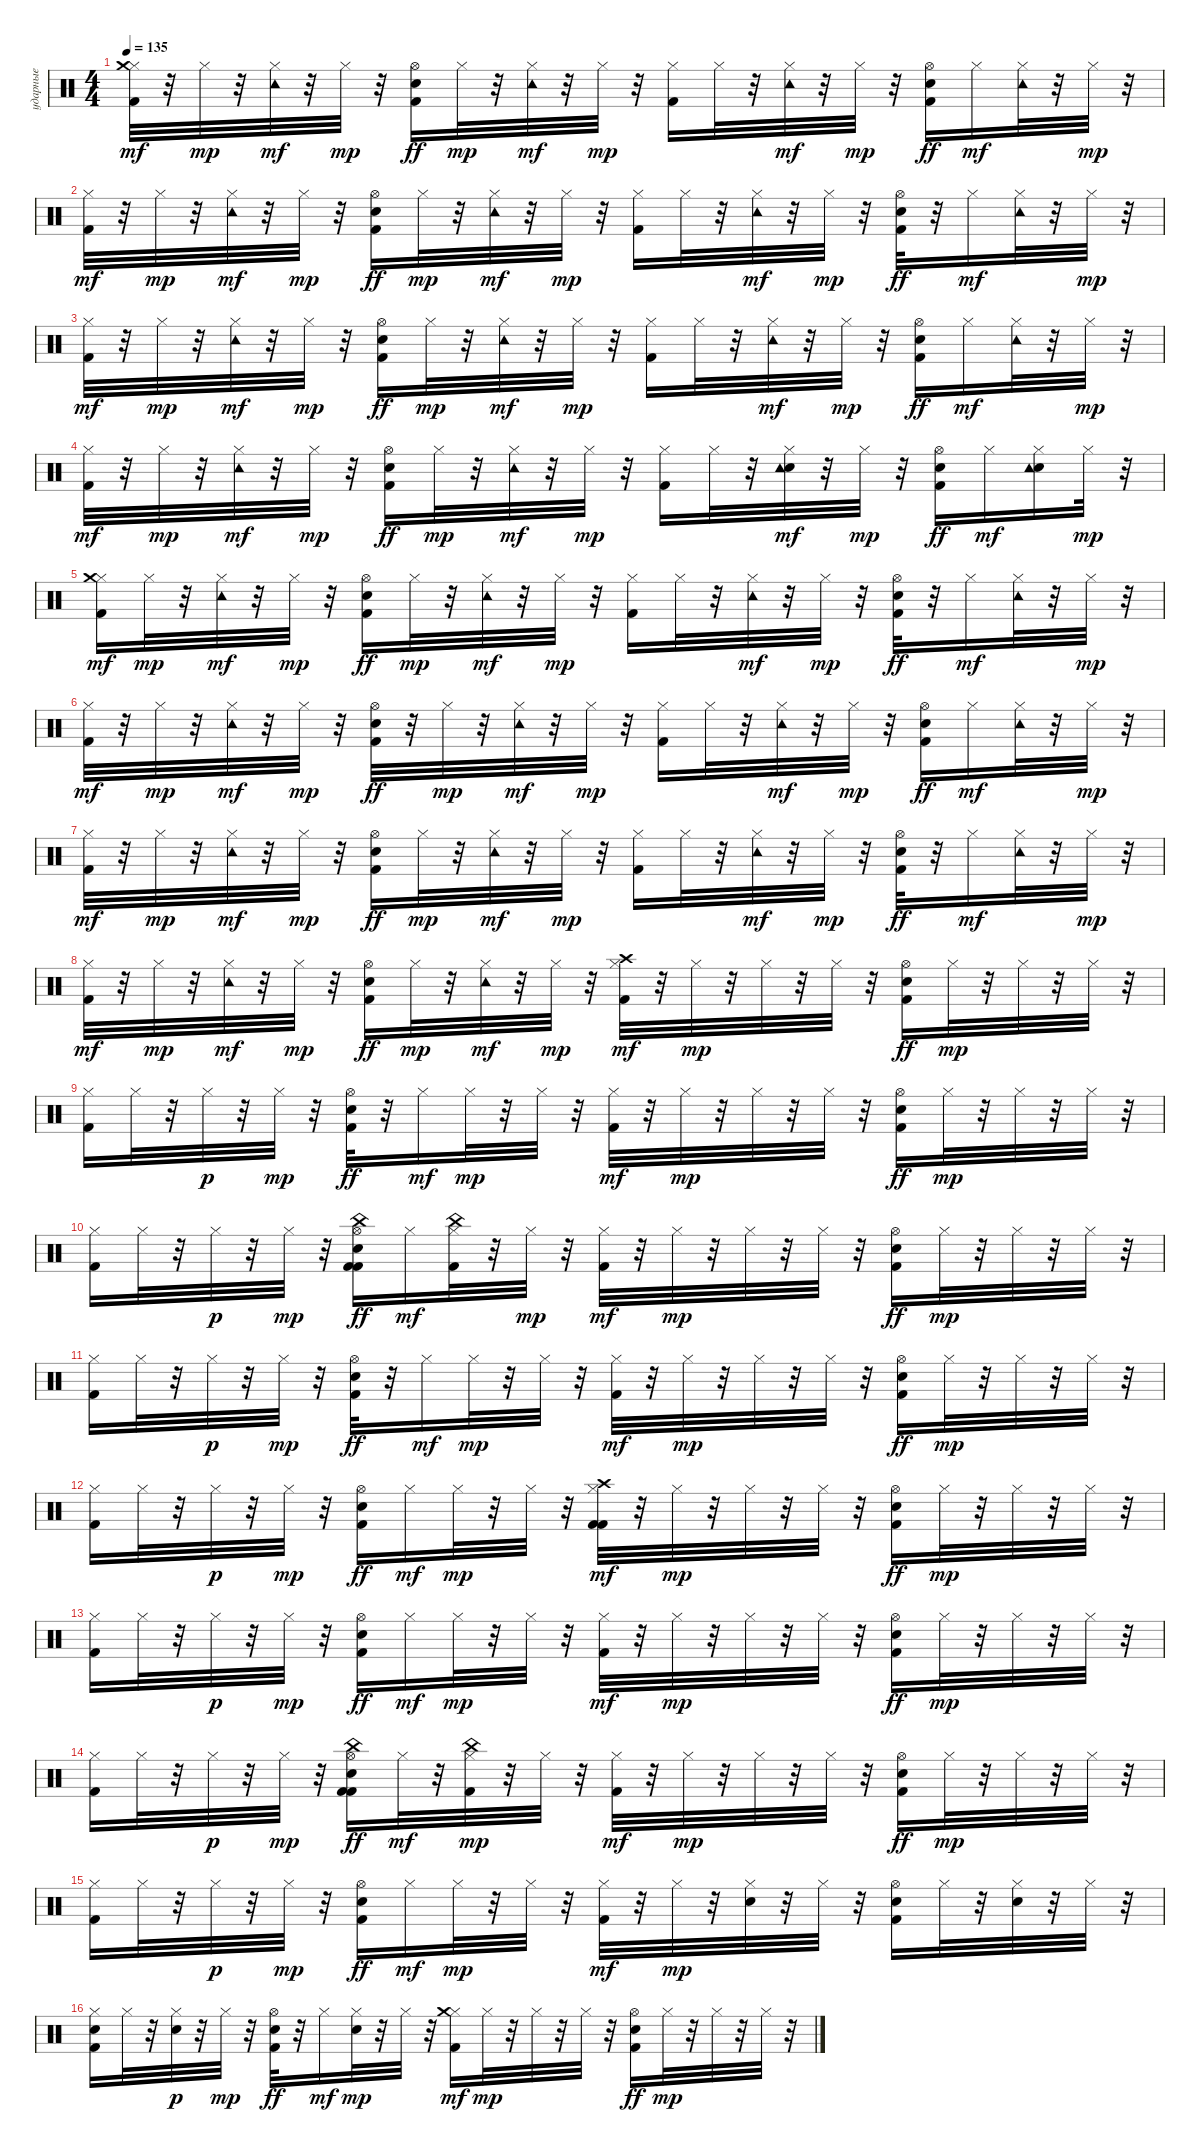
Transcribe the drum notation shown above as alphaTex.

\track ("ударные" "ударные") {instrument percussion}
\staff {score}
\articulation defaults
\ts (4 4)
\tempo 135
\clef neutral
\ks c
("Kick (hit) 2" "Hi-Hat (closed)" "Crash medium (hit)").32{dy mf} r.32 "Hi-Hat (closed)".32{dy mp} r.32 ("Hi-Hat (closed)" "Tambourine (hit)").32{dy mf} r.32 "Hi-Hat (closed)".32{dy mp} r.32 ("Kick (hit) 2" "Snare (hit) 2" "Hi-Hat (open)").16{dy ff} "Hi-Hat (closed)".32{dy mp} r.32 ("Hi-Hat (closed)" "Tambourine (hit)").32{dy mf} r.32 "Hi-Hat (closed)".32{dy mp} r.32 ("Kick (hit) 2" "Hi-Hat (closed)").16 "Hi-Hat (closed)".32 r.32 ("Hi-Hat (closed)" "Tambourine (hit)").32{dy mf} r.32 "Hi-Hat (closed)".32{dy mp} r.32 ("Kick (hit) 2" "Snare (hit) 2" "Hi-Hat (open)").16{dy ff} "Hi-Hat (closed)".16{dy mf} ("Hi-Hat (closed)" "Tambourine (hit)").32 r.32 "Hi-Hat (closed)".32{dy mp} r.32 |
("Kick (hit) 2" "Hi-Hat (closed)").32{dy mf} r.32 "Hi-Hat (closed)".32{dy mp} r.32 ("Hi-Hat (closed)" "Tambourine (hit)").32{dy mf} r.32 "Hi-Hat (closed)".32{dy mp} r.32 ("Kick (hit) 2" "Hi-Hat (open)" "Snare (hit) 2").16{dy ff} "Hi-Hat (closed)".32{dy mp} r.32 ("Hi-Hat (closed)" "Tambourine (hit)").32{dy mf} r.32 "Hi-Hat (closed)".32{dy mp} r.32 ("Kick (hit) 2" "Hi-Hat (closed)").16 "Hi-Hat (closed)".32 r.32 ("Hi-Hat (closed)" "Tambourine (hit)").32{dy mf} r.32 "Hi-Hat (closed)".32{dy mp} r.32 ("Kick (hit) 2" "Snare (hit) 2" "Hi-Hat (open)").32{dy ff} r.32 "Hi-Hat (closed)".16{dy mf} ("Hi-Hat (closed)" "Tambourine (hit)").32 r.32 "Hi-Hat (closed)".32{dy mp} r.32 |
("Kick (hit) 2" "Hi-Hat (closed)").32{dy mf} r.32 "Hi-Hat (closed)".32{dy mp} r.32 ("Hi-Hat (closed)" "Tambourine (hit)").32{dy mf} r.32 "Hi-Hat (closed)".32{dy mp} r.32 ("Kick (hit) 2" "Snare (hit) 2" "Hi-Hat (open)").16{dy ff} "Hi-Hat (closed)".32{dy mp} r.32 ("Hi-Hat (closed)" "Tambourine (hit)").32{dy mf} r.32 "Hi-Hat (closed)".32{dy mp} r.32 ("Kick (hit) 2" "Hi-Hat (closed)").16 "Hi-Hat (closed)".32 r.32 ("Hi-Hat (closed)" "Tambourine (hit)").32{dy mf} r.32 "Hi-Hat (closed)".32{dy mp} r.32 ("Kick (hit) 2" "Snare (hit) 2" "Hi-Hat (open)").16{dy ff} "Hi-Hat (closed)".16{dy mf} ("Hi-Hat (closed)" "Tambourine (hit)").32 r.32 "Hi-Hat (closed)".32{dy mp} r.32 |
("Kick (hit) 2" "Hi-Hat (closed)").32{dy mf} r.32 "Hi-Hat (closed)".32{dy mp} r.32 ("Hi-Hat (closed)" "Tambourine (hit)").32{dy mf} r.32 "Hi-Hat (closed)".32{dy mp} r.32 ("Kick (hit) 2" "Snare (hit) 2" "Hi-Hat (open)").16{dy ff} "Hi-Hat (closed)".32{dy mp} r.32 ("Hi-Hat (closed)" "Tambourine (hit)").32{dy mf} r.32 "Hi-Hat (closed)".32{dy mp} r.32 ("Kick (hit) 2" "Hi-Hat (closed)").16 "Hi-Hat (closed)".32 r.32 ("Snare (hit) 2" "Hi-Hat (closed)" "Tambourine (hit)").32{dy mf} r.32 "Hi-Hat (closed)".32{dy mp} r.32 ("Kick (hit) 2" "Snare (hit) 2" "Hi-Hat (open)").16{dy ff} "Hi-Hat (closed)".16{dy mf} ("Snare (hit) 2" "Hi-Hat (closed)" "Tambourine (hit)").16 "Hi-Hat (closed)".32{dy mp} r.32 |
("Kick (hit) 2" "Hi-Hat (closed)" "Crash medium (hit)").16{dy mf} "Hi-Hat (closed)".32{dy mp} r.32 ("Hi-Hat (closed)" "Tambourine (hit)").32{dy mf} r.32 "Hi-Hat (closed)".32{dy mp} r.32 ("Kick (hit) 2" "Snare (hit) 2" "Hi-Hat (open)").16{dy ff} "Hi-Hat (closed)".32{dy mp} r.32 ("Hi-Hat (closed)" "Tambourine (hit)").32{dy mf} r.32 "Hi-Hat (closed)".32{dy mp} r.32 ("Kick (hit) 2" "Hi-Hat (closed)").16 "Hi-Hat (closed)".32 r.32 ("Hi-Hat (closed)" "Tambourine (hit)").32{dy mf} r.32 "Hi-Hat (closed)".32{dy mp} r.32 ("Kick (hit) 2" "Snare (hit) 2" "Hi-Hat (open)").32{dy ff} r.32 "Hi-Hat (closed)".16{dy mf} ("Hi-Hat (closed)" "Tambourine (hit)").32 r.32 "Hi-Hat (closed)".32{dy mp} r.32 |
("Kick (hit) 2" "Hi-Hat (closed)").32{dy mf} r.32 "Hi-Hat (closed)".32{dy mp} r.32 ("Hi-Hat (closed)" "Tambourine (hit)").32{dy mf} r.32 "Hi-Hat (closed)".32{dy mp} r.32 ("Kick (hit) 2" "Snare (hit) 2" "Hi-Hat (open)").32{dy ff} r.32 "Hi-Hat (closed)".32{dy mp} r.32 ("Hi-Hat (closed)" "Tambourine (hit)").32{dy mf} r.32 "Hi-Hat (closed)".32{dy mp} r.32 ("Kick (hit) 2" "Hi-Hat (closed)").16 "Hi-Hat (closed)".32 r.32 ("Hi-Hat (closed)" "Tambourine (hit)").32{dy mf} r.32 "Hi-Hat (closed)".32{dy mp} r.32 ("Kick (hit) 2" "Snare (hit) 2" "Hi-Hat (open)").16{dy ff} "Hi-Hat (closed)".16{dy mf} ("Hi-Hat (closed)" "Tambourine (hit)").32 r.32 "Hi-Hat (closed)".32{dy mp} r.32 |
("Kick (hit) 2" "Hi-Hat (closed)").32{dy mf} r.32 "Hi-Hat (closed)".32{dy mp} r.32 ("Hi-Hat (closed)" "Tambourine (hit)").32{dy mf} r.32 "Hi-Hat (closed)".32{dy mp} r.32 ("Kick (hit) 2" "Snare (hit) 2" "Hi-Hat (open)").16{dy ff} "Hi-Hat (closed)".32{dy mp} r.32 ("Hi-Hat (closed)" "Tambourine (hit)").32{dy mf} r.32 "Hi-Hat (closed)".32{dy mp} r.32 ("Kick (hit) 2" "Hi-Hat (closed)").16 "Hi-Hat (closed)".32 r.32 ("Hi-Hat (closed)" "Tambourine (hit)").32{dy mf} r.32 "Hi-Hat (closed)".32{dy mp} r.32 ("Kick (hit) 2" "Snare (hit) 2" "Hi-Hat (open)").32{dy ff} r.32 "Hi-Hat (closed)".16{dy mf} ("Hi-Hat (closed)" "Tambourine (hit)").32 r.32 "Hi-Hat (closed)".32{dy mp} r.32 |
("Kick (hit) 2" "Hi-Hat (closed)").32{dy mf} r.32 "Hi-Hat (closed)".32{dy mp} r.32 ("Hi-Hat (closed)" "Tambourine (hit)").32{dy mf} r.32 "Hi-Hat (closed)".32{dy mp} r.32 ("Kick (hit) 2" "Snare (hit) 2" "Hi-Hat (open)").16{dy ff} "Hi-Hat (closed)".32{dy mp} r.32 ("Hi-Hat (closed)" "Tambourine (hit)").32{dy mf} r.32 "Hi-Hat (closed)".32{dy mp} r.32 ("Kick (hit) 2" "Hi-Hat (closed)" "Crash high (hit)").32{dy mf} r.32 "Hi-Hat (closed)".32{dy mp} r.32 "Hi-Hat (closed)".32 r.32 "Hi-Hat (closed)".32 r.32 ("Kick (hit) 2" "Snare (hit) 2" "Hi-Hat (open)").16{dy ff} "Hi-Hat (closed)".32{dy mp} r.32 "Hi-Hat (closed)".32 r.32 "Hi-Hat (closed)".32 r.32 |
("Kick (hit) 2" "Hi-Hat (closed)").16 "Hi-Hat (closed)".32 r.32 "Hi-Hat (closed)".32{dy p} r.32 "Hi-Hat (closed)".32{dy mp} r.32 ("Kick (hit) 2" "Snare (hit) 2" "Hi-Hat (open)").32{dy ff} r.32 "Hi-Hat (closed)".16{dy mf} "Hi-Hat (closed)".32{dy mp} r.32 "Hi-Hat (closed)".32 r.32 ("Kick (hit) 2" "Hi-Hat (closed)").32{dy mf} r.32 "Hi-Hat (closed)".32{dy mp} r.32 "Hi-Hat (closed)".32 r.32 "Hi-Hat (closed)".32 r.32 ("Kick (hit) 2" "Snare (hit) 2" "Hi-Hat (open)").16{dy ff} "Hi-Hat (closed)".32{dy mp} r.32 "Hi-Hat (closed)".32 r.32 "Hi-Hat (closed)".32 r.32 |
("Kick (hit) 2" "Hi-Hat (closed)").16 "Hi-Hat (closed)".32 r.32 "Hi-Hat (closed)".32{dy p} r.32 "Hi-Hat (closed)".32{dy mp} r.32 ("Kick (hit) 2" "Kick (hit) 2" "Hi-Hat (open)" "China (hit)" "Snare (hit) 2").16{dy ff} "Hi-Hat (closed)".16{dy mf} ("Kick (hit) 2" "Hi-Hat (closed)" "China (hit)").32 r.32 "Hi-Hat (closed)".32{dy mp} r.32 ("Kick (hit) 2" "Hi-Hat (closed)").32{dy mf} r.32 "Hi-Hat (closed)".32{dy mp} r.32 "Hi-Hat (closed)".32 r.32 "Hi-Hat (closed)".32 r.32 ("Kick (hit) 2" "Snare (hit) 2" "Hi-Hat (open)").16{dy ff} "Hi-Hat (closed)".32{dy mp} r.32 "Hi-Hat (closed)".32 r.32 "Hi-Hat (closed)".32 r.32 |
("Kick (hit) 2" "Hi-Hat (closed)").16 "Hi-Hat (closed)".32 r.32 "Hi-Hat (closed)".32{dy p} r.32 "Hi-Hat (closed)".32{dy mp} r.32 ("Kick (hit) 2" "Snare (hit) 2" "Hi-Hat (open)").32{dy ff} r.32 "Hi-Hat (closed)".16{dy mf} "Hi-Hat (closed)".32{dy mp} r.32 "Hi-Hat (closed)".32 r.32 ("Kick (hit) 2" "Hi-Hat (closed)").32{dy mf} r.32 "Hi-Hat (closed)".32{dy mp} r.32 "Hi-Hat (closed)".32 r.32 "Hi-Hat (closed)".32 r.32 ("Kick (hit) 2" "Snare (hit) 2" "Hi-Hat (open)").16{dy ff} "Hi-Hat (closed)".32{dy mp} r.32 "Hi-Hat (closed)".32 r.32 "Hi-Hat (closed)".32 r.32 |
("Kick (hit) 2" "Hi-Hat (closed)").16 "Hi-Hat (closed)".32 r.32 "Hi-Hat (closed)".32{dy p} r.32 "Hi-Hat (closed)".32{dy mp} r.32 ("Kick (hit) 2" "Snare (hit) 2" "Hi-Hat (open)").16{dy ff} "Hi-Hat (closed)".16{dy mf} "Hi-Hat (closed)".32{dy mp} r.32 "Hi-Hat (closed)".32 r.32 ("Kick (hit) 2" "Kick (hit) 2" "Hi-Hat (closed)" "Crash high (hit)").32{dy mf} r.32 "Hi-Hat (closed)".32{dy mp} r.32 "Hi-Hat (closed)".32 r.32 "Hi-Hat (closed)".32 r.32 ("Kick (hit) 2" "Snare (hit) 2" "Hi-Hat (open)").16{dy ff} "Hi-Hat (closed)".32{dy mp} r.32 "Hi-Hat (closed)".32 r.32 "Hi-Hat (closed)".32 r.32 |
("Kick (hit) 2" "Hi-Hat (closed)").16 "Hi-Hat (closed)".32 r.32 "Hi-Hat (closed)".32{dy p} r.32 "Hi-Hat (closed)".32{dy mp} r.32 ("Kick (hit) 2" "Snare (hit) 2" "Hi-Hat (open)").16{dy ff} "Hi-Hat (closed)".16{dy mf} "Hi-Hat (closed)".32{dy mp} r.32 "Hi-Hat (closed)".32 r.32 ("Kick (hit) 2" "Hi-Hat (closed)").32{dy mf} r.32 "Hi-Hat (closed)".32{dy mp} r.32 "Hi-Hat (closed)".32 r.32 "Hi-Hat (closed)".32 r.32 ("Kick (hit) 2" "Snare (hit) 2" "Hi-Hat (open)").16{dy ff} "Hi-Hat (closed)".32{dy mp} r.32 "Hi-Hat (closed)".32 r.32 "Hi-Hat (closed)".32 r.32 |
("Kick (hit) 2" "Hi-Hat (closed)").16 "Hi-Hat (closed)".32 r.32 "Hi-Hat (closed)".32{dy p} r.32 "Hi-Hat (closed)".32{dy mp} r.32 ("Kick (hit) 2" "Kick (hit) 2" "Hi-Hat (open)" "Snare (hit) 2" "China (hit)").16{dy ff} "Hi-Hat (closed)".32{dy mf} r.32 ("Kick (hit) 2" "Hi-Hat (closed)" "China (hit)").32{dy mp} r.32 "Hi-Hat (closed)".32 r.32 ("Kick (hit) 2" "Hi-Hat (closed)").32{dy mf} r.32 "Hi-Hat (closed)".32{dy mp} r.32 "Hi-Hat (closed)".32 r.32 "Hi-Hat (closed)".32 r.32 ("Kick (hit) 2" "Snare (hit) 2" "Hi-Hat (open)").16{dy ff} "Hi-Hat (closed)".32{dy mp} r.32 "Hi-Hat (closed)".32 r.32 "Hi-Hat (closed)".32 r.32 |
("Kick (hit) 2" "Hi-Hat (closed)").16 "Hi-Hat (closed)".32 r.32 "Hi-Hat (closed)".32{dy p} r.32 "Hi-Hat (closed)".32{dy mp} r.32 ("Kick (hit) 2" "Snare (hit) 2" "Hi-Hat (open)").16{dy ff} "Hi-Hat (closed)".16{dy mf} "Hi-Hat (closed)".32{dy mp} r.32 "Hi-Hat (closed)".32 r.32 ("Kick (hit) 2" "Hi-Hat (closed)").32{dy mf} r.32 "Hi-Hat (closed)".32{dy mp} r.32 ("Snare (hit) 2" "Hi-Hat (closed)").32 r.32 "Hi-Hat (closed)".32 r.32 ("Kick (hit) 2" "Snare (hit) 2" "Hi-Hat (open)").16 "Hi-Hat (closed)".32 r.32 ("Snare (hit) 2" "Hi-Hat (closed)").32 r.32 "Hi-Hat (closed)".32 r.32 |
("Kick (hit) 2" "Snare (hit) 2" "Hi-Hat (closed)").16 "Hi-Hat (closed)".32 r.32 ("Snare (hit) 2" "Hi-Hat (closed)").32{dy p} r.32 "Hi-Hat (closed)".32{dy mp} r.32 ("Kick (hit) 2" "Snare (hit) 2" "Hi-Hat (open)").32{dy ff} r.32 "Hi-Hat (closed)".16{dy mf} ("Snare (hit) 2" "Hi-Hat (closed)").32{dy mp} r.32 "Hi-Hat (closed)".32 r.32 ("Kick (hit) 2" "Hi-Hat (closed)" "Crash medium (hit)").16{dy mf} "Hi-Hat (closed)".32{dy mp} r.32 "Hi-Hat (closed)".32 r.32 "Hi-Hat (closed)".32 r.32 ("Kick (hit) 2" "Snare (hit) 2" "Hi-Hat (open)").16{dy ff} "Hi-Hat (closed)".32{dy mp} r.32 "Hi-Hat (closed)".32 r.32 "Hi-Hat (closed)".32 r.32
